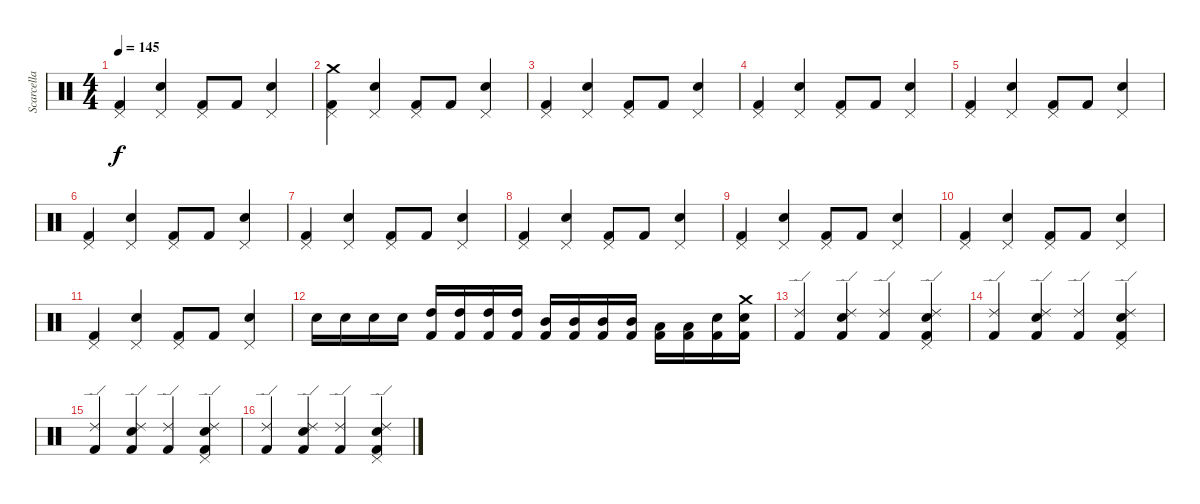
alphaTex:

\track ("Scarcella" "Scarcella") {instrument percussion}
\staff {score}
\articulation defaults
\ts (4 4)
\tempo 145
\clef neutral
\ks c
("Pedal Hi-Hat (hit)" "Kick (hit) 2").4{dy f} ("Pedal Hi-Hat (hit)" "Snare (hit) 2").4 ("Pedal Hi-Hat (hit)" "Kick (hit) 2").8 "Kick (hit) 2".8 ("Pedal Hi-Hat (hit)" "Snare (hit) 2").4 |
("Pedal Hi-Hat (hit)" "Crash medium (hit)" "Kick (hit) 2").4 ("Pedal Hi-Hat (hit)" "Snare (hit) 2").4 ("Pedal Hi-Hat (hit)" "Kick (hit) 2").8 "Kick (hit) 2".8 ("Pedal Hi-Hat (hit)" "Snare (hit) 2").4 |
("Pedal Hi-Hat (hit)" "Kick (hit) 2").4 ("Pedal Hi-Hat (hit)" "Snare (hit) 2").4 ("Pedal Hi-Hat (hit)" "Kick (hit) 2").8 "Kick (hit) 2".8 ("Pedal Hi-Hat (hit)" "Snare (hit) 2").4 |
("Pedal Hi-Hat (hit)" "Kick (hit) 2").4 ("Pedal Hi-Hat (hit)" "Snare (hit) 2").4 ("Pedal Hi-Hat (hit)" "Kick (hit) 2").8 "Kick (hit) 2".8 ("Pedal Hi-Hat (hit)" "Snare (hit) 2").4 |
("Pedal Hi-Hat (hit)" "Kick (hit) 2").4 ("Pedal Hi-Hat (hit)" "Snare (hit) 2").4 ("Pedal Hi-Hat (hit)" "Kick (hit) 2").8 "Kick (hit) 2".8 ("Pedal Hi-Hat (hit)" "Snare (hit) 2").4 |
("Pedal Hi-Hat (hit)" "Kick (hit) 2").4 ("Pedal Hi-Hat (hit)" "Snare (hit) 2").4 ("Pedal Hi-Hat (hit)" "Kick (hit) 2").8 "Kick (hit) 2".8 ("Pedal Hi-Hat (hit)" "Snare (hit) 2").4 |
("Pedal Hi-Hat (hit)" "Kick (hit) 2").4 ("Pedal Hi-Hat (hit)" "Snare (hit) 2").4 ("Pedal Hi-Hat (hit)" "Kick (hit) 2").8 "Kick (hit) 2".8 ("Pedal Hi-Hat (hit)" "Snare (hit) 2").4 |
("Pedal Hi-Hat (hit)" "Kick (hit) 2").4 ("Pedal Hi-Hat (hit)" "Snare (hit) 2").4 ("Pedal Hi-Hat (hit)" "Kick (hit) 2").8 "Kick (hit) 2".8 ("Pedal Hi-Hat (hit)" "Snare (hit) 2").4 |
("Pedal Hi-Hat (hit)" "Kick (hit) 2").4 ("Pedal Hi-Hat (hit)" "Snare (hit) 2").4 ("Pedal Hi-Hat (hit)" "Kick (hit) 2").8 "Kick (hit) 2".8 ("Pedal Hi-Hat (hit)" "Snare (hit) 2").4 |
("Pedal Hi-Hat (hit)" "Kick (hit) 2").4 ("Pedal Hi-Hat (hit)" "Snare (hit) 2").4 ("Pedal Hi-Hat (hit)" "Kick (hit) 2").8 "Kick (hit) 2".8 ("Pedal Hi-Hat (hit)" "Snare (hit) 2").4 |
("Pedal Hi-Hat (hit)" "Kick (hit) 2").4 ("Pedal Hi-Hat (hit)" "Snare (hit) 2").4 ("Pedal Hi-Hat (hit)" "Kick (hit) 2").8 "Kick (hit) 2".8 ("Pedal Hi-Hat (hit)" "Snare (hit) 2").4 |
"Snare (hit) 2".16 "Snare (hit) 2".16 "Snare (hit) 2".16 "Snare (hit) 2".16 ("High Tom (hit)" "Kick (hit) 2").16 ("High Tom (hit)" "Kick (hit) 2").16 ("High Tom (hit)" "Kick (hit) 2").16 ("High Tom (hit)" "Kick (hit) 2").16 ("Mid Tom (hit)" "Kick (hit) 2").16 ("Mid Tom (hit)" "Kick (hit) 2").16 ("Mid Tom (hit)" "Kick (hit) 2").16 ("Mid Tom (hit)" "Kick (hit) 2").16 ("Low Tom (hit)" "Kick (hit) 2").16 ("Low Tom (hit)" "Kick (hit) 2").16 ("Snare (hit) 2" "Kick (hit) 2").16 ("Crash medium (hit)" "Snare (hit) 2" "Kick (hit) 2").16 |
("Ride (edge) 2" "Kick (hit) 2").4 ("Ride (edge) 2" "Snare (hit) 2" "Kick (hit) 2").4 ("Ride (edge) 2" "Kick (hit) 2").4 ("Pedal Hi-Hat (hit)" "Ride (edge) 2" "Snare (hit) 2" "Kick (hit) 2").4 |
("Ride (edge) 2" "Kick (hit) 2").4 ("Ride (edge) 2" "Snare (hit) 2" "Kick (hit) 2").4 ("Ride (edge) 2" "Kick (hit) 2").4 ("Pedal Hi-Hat (hit)" "Ride (edge) 2" "Snare (hit) 2" "Kick (hit) 2").4 |
("Ride (edge) 2" "Kick (hit) 2").4 ("Ride (edge) 2" "Snare (hit) 2" "Kick (hit) 2").4 ("Ride (edge) 2" "Kick (hit) 2").4 ("Pedal Hi-Hat (hit)" "Ride (edge) 2" "Snare (hit) 2" "Kick (hit) 2").4 |
("Ride (edge) 2" "Kick (hit) 2").4 ("Ride (edge) 2" "Snare (hit) 2" "Kick (hit) 2").4 ("Ride (edge) 2" "Kick (hit) 2").4 ("Pedal Hi-Hat (hit)" "Ride (edge) 2" "Snare (hit) 2" "Kick (hit) 2").4
